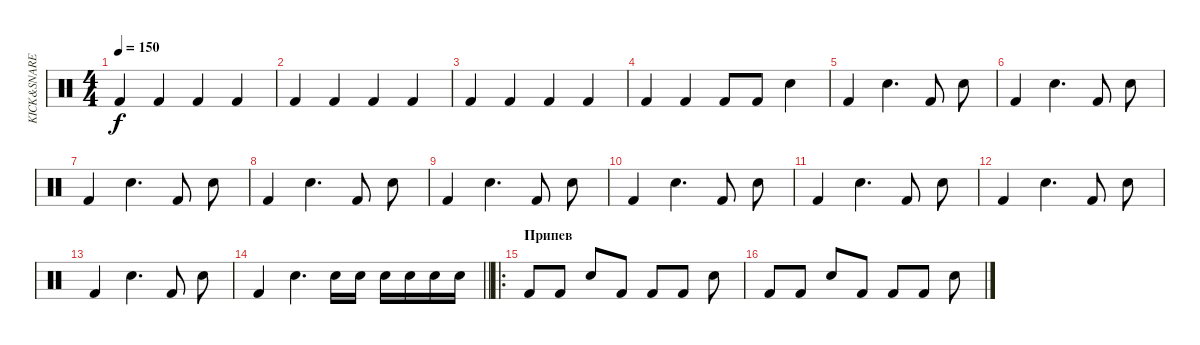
\track ("KICK&SNARE" "KICK&SNARE") {instrument percussion}
\staff {score}
\articulation defaults
\ts (4 4)
\tempo 150
\clef neutral
\ks c "Kick (hit) 2".4{dy f} "Kick (hit) 2".4 "Kick (hit) 2".4 "Kick (hit) 2".4
|
"Kick (hit) 2".4 "Kick (hit) 2".4 "Kick (hit) 2".4 "Kick (hit) 2".4 |
"Kick (hit) 2".4 "Kick (hit) 2".4 "Kick (hit) 2".4 "Kick (hit) 2".4 |
"Kick (hit) 2".4 "Kick (hit) 2".4 "Kick (hit) 2".8 "Kick (hit) 2".8 "Snare (hit) 2".4 |
"Kick (hit) 2".4 "Snare (hit) 2".4{d} "Kick (hit) 2".8 "Snare (hit) 2".8 |
"Kick (hit) 2".4 "Snare (hit) 2".4{d} "Kick (hit) 2".8 "Snare (hit) 2".8 |
"Kick (hit) 2".4 "Snare (hit) 2".4{d} "Kick (hit) 2".8 "Snare (hit) 2".8 |
"Kick (hit) 2".4 "Snare (hit) 2".4{d} "Kick (hit) 2".8 "Snare (hit) 2".8 |
"Kick (hit) 2".4 "Snare (hit) 2".4{d} "Kick (hit) 2".8 "Snare (hit) 2".8 |
"Kick (hit) 2".4 "Snare (hit) 2".4{d} "Kick (hit) 2".8 "Snare (hit) 2".8 |
"Kick (hit) 2".4 "Snare (hit) 2".4{d} "Kick (hit) 2".8 "Snare (hit) 2".8 |
"Kick (hit) 2".4 "Snare (hit) 2".4{d} "Kick (hit) 2".8 "Snare (hit) 2".8 |
"Kick (hit) 2".4 "Snare (hit) 2".4{d} "Kick (hit) 2".8 "Snare (hit) 2".8 |
\barLineRight lightlight "Kick (hit) 2".4 "Snare (hit) 2".4{d} "Snare (hit) 2".16 "Snare (hit) 2".16 "Snare (hit) 2".16 "Snare (hit) 2".16 "Snare (hit) 2".16 "Snare (hit) 2".16
|
\ro
\section ("" "Припев")
"Kick (hit) 2".8 "Kick (hit) 2".8 "Snare (hit) 2".8 "Kick (hit) 2".8 "Kick (hit) 2".8 "Kick (hit) 2".8 "Snare (hit) 2".8 |
"Kick (hit) 2".8 "Kick (hit) 2".8 "Snare (hit) 2".8 "Kick (hit) 2".8 "Kick (hit) 2".8 "Kick (hit) 2".8 "Snare (hit) 2".8
